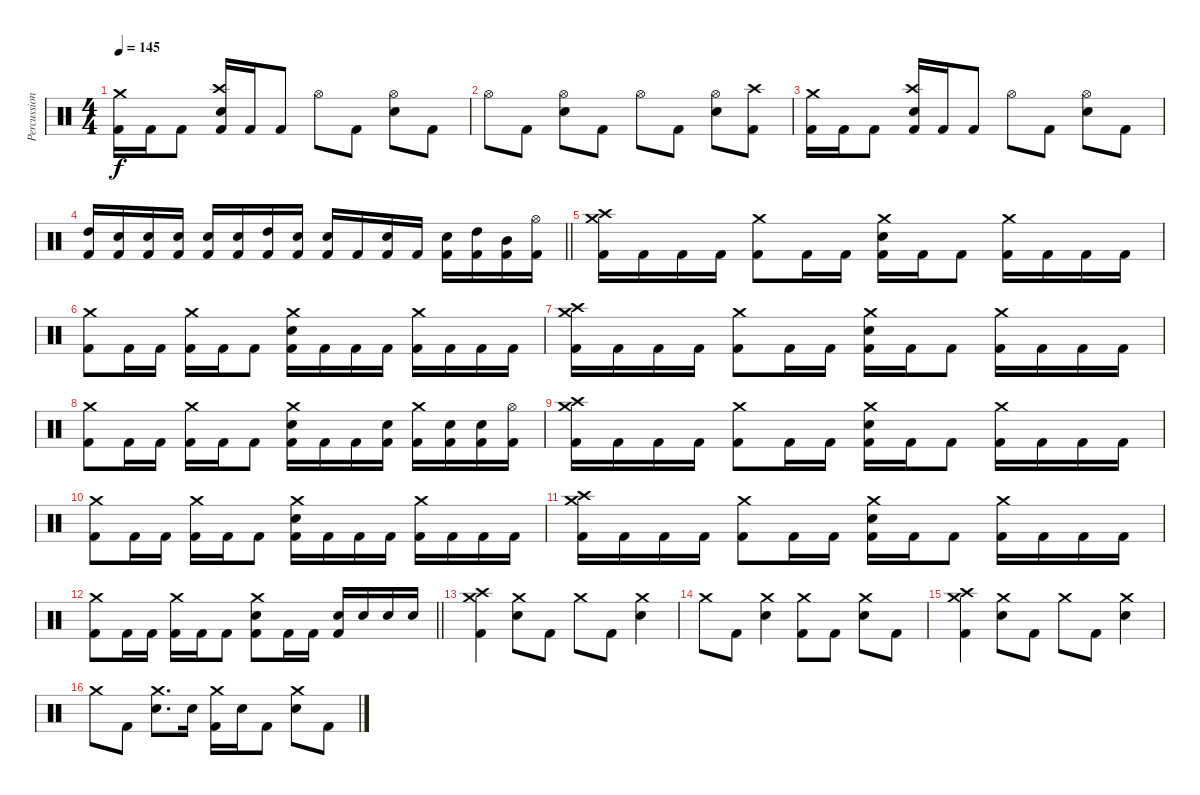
\track ("Percussion" "Percussion") {instrument percussion}
\staff {score}
\articulation defaults
\ts (4 4)
\tempo 145
\clef neutral
\ks c
("Crash medium (hit)" "Kick (hit) 2").16{dy f} "Kick (hit) 2".16 "Kick (hit) 2".8 ("Crash high (hit)" "Electric Snare (hit)" "Kick (hit) 2").16 "Kick (hit) 2".16 "Kick (hit) 2".8 "Hi-Hat (open)".8 "Kick (hit) 2".8 ("Hi-Hat (open)" "Electric Snare (hit)").8 "Kick (hit) 2".8 |
"Hi-Hat (open)".8 "Kick (hit) 2".8 ("Hi-Hat (open)" "Electric Snare (hit)").8 "Kick (hit) 2".8 "Hi-Hat (open)".8 "Kick (hit) 2".8 ("Hi-Hat (open)" "Electric Snare (hit)").8 ("Crash high (hit)" "Kick (hit) 2").8 |
("Crash medium (hit)" "Kick (hit) 2").16 "Kick (hit) 2".16 "Kick (hit) 2".8 ("Crash high (hit)" "Electric Snare (hit)" "Kick (hit) 2").16 "Kick (hit) 2".16 "Kick (hit) 2".8 "Hi-Hat (open)".8 "Kick (hit) 2".8 ("Hi-Hat (open)" "Electric Snare (hit)").8 "Kick (hit) 2".8 |
\barLineRight lightlight
("High Tom (hit)" "Kick (hit) 2").16 ("Electric Snare (hit)" "Kick (hit) 2").16 ("Electric Snare (hit)" "Kick (hit) 2").16 ("Electric Snare (hit)" "Kick (hit) 2").16 ("Electric Snare (hit)" "Kick (hit) 2").16 ("Electric Snare (hit)" "Kick (hit) 2").16 ("High Tom (hit)" "Kick (hit) 2").16 ("Electric Snare (hit)" "Kick (hit) 2").16 ("Electric Snare (hit)" "Kick (hit) 2").16 "Kick (hit) 2".16 ("Electric Snare (hit)" "Kick (hit) 2").16 "Kick (hit) 2".16 ("Electric Snare (hit)" "Kick (hit) 2").16 ("High Tom (hit)" "Kick (hit) 2").16 ("Mid Tom (hit)" "Kick (hit) 2").16 ("Hi-Hat (open)" "Kick (hit) 2").16 |
\section ("" "")
("Crash medium (hit)" "Crash high (hit)" "Kick (hit) 2").16 "Kick (hit) 2".16 "Kick (hit) 2".16 "Kick (hit) 2".16 ("Crash medium (hit)" "Kick (hit) 2").8 "Kick (hit) 2".16 "Kick (hit) 2".16 ("Crash medium (hit)" "Electric Snare (hit)" "Kick (hit) 2").16 "Kick (hit) 2".16 "Kick (hit) 2".8 ("Crash medium (hit)" "Kick (hit) 2").16 "Kick (hit) 2".16 "Kick (hit) 2".16 "Kick (hit) 2".16 |
("Crash medium (hit)" "Kick (hit) 2").8 "Kick (hit) 2".16 "Kick (hit) 2".16 ("Crash medium (hit)" "Kick (hit) 2").16 "Kick (hit) 2".16 "Kick (hit) 2".8 ("Crash medium (hit)" "Electric Snare (hit)" "Kick (hit) 2").16 "Kick (hit) 2".16 "Kick (hit) 2".16 "Kick (hit) 2".16 ("Crash medium (hit)" "Kick (hit) 2").16 "Kick (hit) 2".16 "Kick (hit) 2".16 "Kick (hit) 2".16 |
("Crash medium (hit)" "Crash high (hit)" "Kick (hit) 2").16 "Kick (hit) 2".16 "Kick (hit) 2".16 "Kick (hit) 2".16 ("Crash medium (hit)" "Kick (hit) 2").8 "Kick (hit) 2".16 "Kick (hit) 2".16 ("Crash medium (hit)" "Electric Snare (hit)" "Kick (hit) 2").16 "Kick (hit) 2".16 "Kick (hit) 2".8 ("Crash medium (hit)" "Kick (hit) 2").16 "Kick (hit) 2".16 "Kick (hit) 2".16 "Kick (hit) 2".16 |
("Crash medium (hit)" "Kick (hit) 2").8 "Kick (hit) 2".16 "Kick (hit) 2".16 ("Crash medium (hit)" "Kick (hit) 2").16 "Kick (hit) 2".16 "Kick (hit) 2".8 ("Crash medium (hit)" "Electric Snare (hit)" "Kick (hit) 2").16 "Kick (hit) 2".16 "Kick (hit) 2".16 ("Electric Snare (hit)" "Kick (hit) 2").16 ("Crash medium (hit)" "Kick (hit) 2").16 ("Electric Snare (hit)" "Kick (hit) 2").16 ("Electric Snare (hit)" "Kick (hit) 2").16 ("Hi-Hat (open)" "Kick (hit) 2").16 |
("Crash medium (hit)" "Crash high (hit)" "Kick (hit) 2").16 "Kick (hit) 2".16 "Kick (hit) 2".16 "Kick (hit) 2".16 ("Crash medium (hit)" "Kick (hit) 2").8 "Kick (hit) 2".16 "Kick (hit) 2".16 ("Crash medium (hit)" "Electric Snare (hit)" "Kick (hit) 2").16 "Kick (hit) 2".16 "Kick (hit) 2".8 ("Crash medium (hit)" "Kick (hit) 2").16 "Kick (hit) 2".16 "Kick (hit) 2".16 "Kick (hit) 2".16 |
("Crash medium (hit)" "Kick (hit) 2").8 "Kick (hit) 2".16 "Kick (hit) 2".16 ("Crash medium (hit)" "Kick (hit) 2").16 "Kick (hit) 2".16 "Kick (hit) 2".8 ("Crash medium (hit)" "Electric Snare (hit)" "Kick (hit) 2").16 "Kick (hit) 2".16 "Kick (hit) 2".16 "Kick (hit) 2".16 ("Crash medium (hit)" "Kick (hit) 2").16 "Kick (hit) 2".16 "Kick (hit) 2".16 "Kick (hit) 2".16 |
("Crash medium (hit)" "Crash high (hit)" "Kick (hit) 2").16 "Kick (hit) 2".16 "Kick (hit) 2".16 "Kick (hit) 2".16 ("Crash medium (hit)" "Kick (hit) 2").8 "Kick (hit) 2".16 "Kick (hit) 2".16 ("Crash medium (hit)" "Electric Snare (hit)" "Kick (hit) 2").16 "Kick (hit) 2".16 "Kick (hit) 2".8 ("Crash medium (hit)" "Kick (hit) 2").16 "Kick (hit) 2".16 "Kick (hit) 2".16 "Kick (hit) 2".16 |
\barLineRight lightlight
("Crash medium (hit)" "Kick (hit) 2").8 "Kick (hit) 2".16 "Kick (hit) 2".16 ("Crash medium (hit)" "Kick (hit) 2").16 "Kick (hit) 2".16 "Kick (hit) 2".8 ("Crash medium (hit)" "Electric Snare (hit)" "Kick (hit) 2").8 "Kick (hit) 2".16 "Kick (hit) 2".16 ("Electric Snare (hit)" "Kick (hit) 2").16 "Electric Snare (hit)".16 "Electric Snare (hit)".16 "Electric Snare (hit)".16 |
\section ("" "")
("Crash medium (hit)" "Crash high (hit)" "Kick (hit) 2").4 ("Crash medium (hit)" "Electric Snare (hit)").8 "Kick (hit) 2".8 "Crash medium (hit)".8 "Kick (hit) 2".8 ("Crash medium (hit)" "Electric Snare (hit)").4 |
"Crash medium (hit)".8 "Kick (hit) 2".8 ("Crash medium (hit)" "Electric Snare (hit)").4 ("Crash medium (hit)" "Kick (hit) 2").8 "Kick (hit) 2".8 ("Crash medium (hit)" "Electric Snare (hit)").8 "Kick (hit) 2".8 |
("Crash medium (hit)" "Crash high (hit)" "Kick (hit) 2").4 ("Crash medium (hit)" "Electric Snare (hit)").8 "Kick (hit) 2".8 "Crash medium (hit)".8 "Kick (hit) 2".8 ("Crash medium (hit)" "Electric Snare (hit)").4 |
"Crash medium (hit)".8 "Kick (hit) 2".8 ("Crash medium (hit)" "Electric Snare (hit)").8{d} "Electric Snare (hit)".16 ("Crash medium (hit)" "Kick (hit) 2").16 "Electric Snare (hit)".16 "Kick (hit) 2".8 ("Crash medium (hit)" "Electric Snare (hit)").8 "Kick (hit) 2".8
